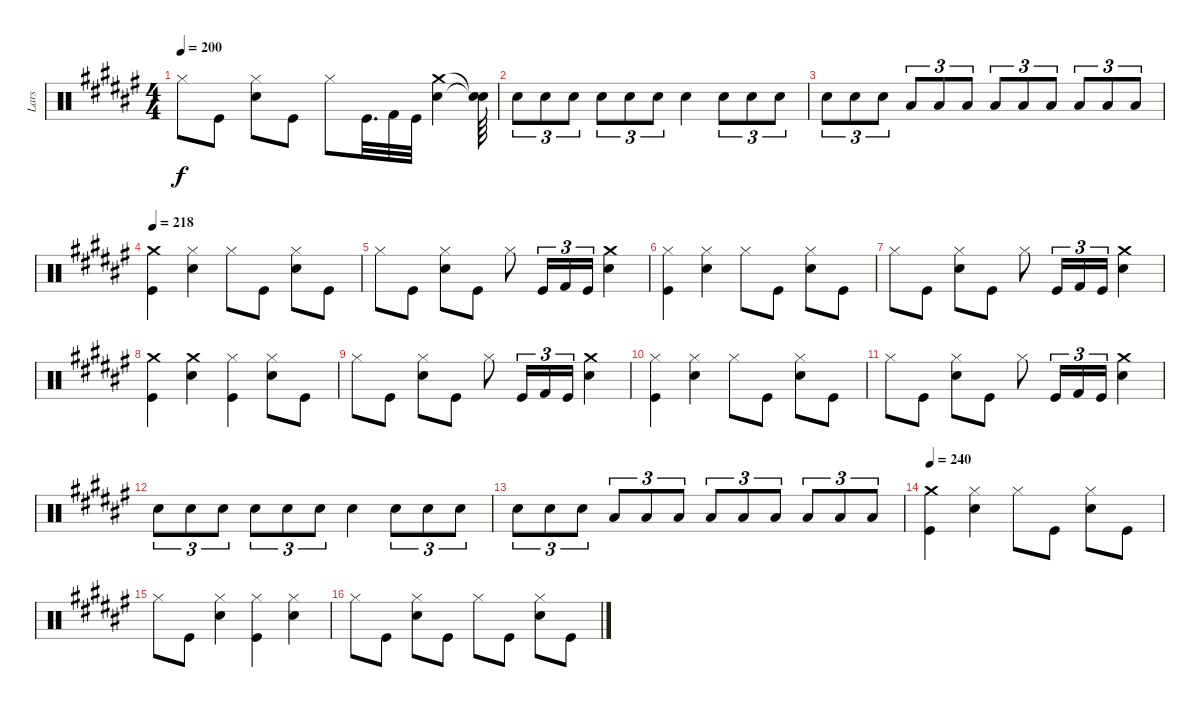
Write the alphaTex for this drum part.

\track ("Lars" "Lars") {instrument percussion}
\staff {score}
\articulation defaults
\ts (4 4)
\tempo 200
\clef neutral
\ks f# "Hi-Hat (closed)".8{dy f} "Kick (hit)".8
("Snare (hit) 2" "Hi-Hat (closed)").8 "Kick (hit)".8 "Hi-Hat (closed)".8 "Kick (hit)".32{d} "Kick (hit) 2".32 "Kick (hit)".32 ("Crash medium (hit)" "Snare (hit) 2").4 ("Snare (hit)"{t} "Snare (hit)"{t}).64 |
"Snare (hit) 2".8{tu (3 2)} "Snare (hit) 2".8{tu (3 2)} "Snare (hit) 2".8{tu (3 2)} "Snare (hit) 2".8{tu (3 2)} "Snare (hit) 2".8{tu (3 2)} "Snare (hit) 2".8{tu (3 2)} "Snare (hit) 2".4 "Snare (hit) 2".8{tu (3 2)} "Snare (hit) 2".8{tu (3 2)} "Snare (hit) 2".8{tu (3 2)} |
"Snare (hit) 2".8{tu (3 2)} "Snare (hit) 2".8{tu (3 2)} "Snare (hit) 2".8{tu (3 2)} "Low Tom (hit)".8{tu (3 2)} "Low Tom (hit)".8{tu (3 2)} "Low Tom (hit)".8{tu (3 2)} "Low Tom (hit)".8{tu (3 2)} "Low Tom (hit)".8{tu (3 2)} "Low Tom (hit)".8{tu (3 2)} "Low Tom (hit)".8{tu (3 2)} "Low Tom (hit)".8{tu (3 2)} "Low Tom (hit)".8{tu (3 2)} |
\tempo 218
("Crash medium (hit)" "Kick (hit)").4 ("Hi-Hat (closed)" "Snare (hit) 2").4 "Hi-Hat (closed)".8 "Kick (hit)".8 ("Snare (hit) 2" "Hi-Hat (closed)").8 "Kick (hit)".8 |
"Hi-Hat (closed)".8 "Kick (hit)".8 ("Snare (hit) 2" "Hi-Hat (closed)").8 "Kick (hit)".8 "Hi-Hat (closed)".8 "Kick (hit)".16{tu (3 2)} "Kick (hit) 2".16{tu (3 2)} "Kick (hit)".16{tu (3 2)} ("Crash medium (hit)" "Snare (hit) 2").4 |
("Hi-Hat (closed)" "Kick (hit)").4 ("Snare (hit) 2" "Hi-Hat (closed)").4 "Hi-Hat (closed)".8 "Kick (hit)".8 ("Snare (hit) 2" "Hi-Hat (closed)").8 "Kick (hit)".8 |
"Hi-Hat (closed)".8 "Kick (hit)".8 ("Snare (hit) 2" "Hi-Hat (closed)").8 "Kick (hit)".8 "Hi-Hat (closed)".8 "Kick (hit)".16{tu (3 2)} "Kick (hit) 2".16{tu (3 2)} "Kick (hit)".16{tu (3 2)} ("Crash medium (hit)" "Snare (hit) 2").4 |
("Kick (hit)" "Crash medium (hit)").4 ("Snare (hit) 2" "Crash medium (hit)").4 ("Hi-Hat (closed)" "Kick (hit)").4 ("Snare (hit) 2" "Hi-Hat (closed)").8 "Kick (hit)".8 |
"Hi-Hat (closed)".8 "Kick (hit)".8 ("Snare (hit) 2" "Hi-Hat (closed)").8 "Kick (hit)".8 "Hi-Hat (closed)".8 "Kick (hit)".16{tu (3 2)} "Kick (hit) 2".16{tu (3 2)} "Kick (hit)".16{tu (3 2)} ("Crash medium (hit)" "Snare (hit) 2").4 |
("Hi-Hat (closed)" "Kick (hit)").4 ("Snare (hit) 2" "Hi-Hat (closed)").4 "Hi-Hat (closed)".8 "Kick (hit)".8 ("Snare (hit) 2" "Hi-Hat (closed)").8 "Kick (hit)".8 |
"Hi-Hat (closed)".8 "Kick (hit)".8 ("Snare (hit) 2" "Hi-Hat (closed)").8 "Kick (hit)".8 "Hi-Hat (closed)".8 "Kick (hit)".16{tu (3 2)} "Kick (hit) 2".16{tu (3 2)} "Kick (hit)".16{tu (3 2)} ("Crash medium (hit)" "Snare (hit) 2").4 |
"Snare (hit) 2".8{tu (3 2)} "Snare (hit) 2".8{tu (3 2)} "Snare (hit) 2".8{tu (3 2)} "Snare (hit) 2".8{tu (3 2)} "Snare (hit) 2".8{tu (3 2)} "Snare (hit) 2".8{tu (3 2)} "Snare (hit) 2".4 "Snare (hit) 2".8{tu (3 2)} "Snare (hit) 2".8{tu (3 2)} "Snare (hit) 2".8{tu (3 2)} |
"Snare (hit) 2".8{tu (3 2)} "Snare (hit) 2".8{tu (3 2)} "Snare (hit) 2".8{tu (3 2)} "Low Tom (hit)".8{tu (3 2)} "Low Tom (hit)".8{tu (3 2)} "Low Tom (hit)".8{tu (3 2)} "Low Tom (hit)".8{tu (3 2)} "Low Tom (hit)".8{tu (3 2)} "Low Tom (hit)".8{tu (3 2)} "Low Tom (hit)".8{tu (3 2)} "Low Tom (hit)".8{tu (3 2)} "Low Tom (hit)".8{tu (3 2)} |
\tempo 240
("Crash medium (hit)" "Kick (hit)").4 ("Hi-Hat (closed)" "Snare (hit) 2").4 "Hi-Hat (closed)".8 "Kick (hit)".8 ("Snare (hit) 2" "Hi-Hat (closed)").8 "Kick (hit)".8 |
"Hi-Hat (closed)".8 "Kick (hit)".8 ("Snare (hit) 2" "Hi-Hat (closed)").4 ("Hi-Hat (closed)" "Kick (hit)").4 ("Snare (hit) 2" "Hi-Hat (closed)").4 |
"Hi-Hat (closed)".8 "Kick (hit)".8 ("Snare (hit) 2" "Hi-Hat (closed)").8 "Kick (hit)".8 "Hi-Hat (closed)".8 "Kick (hit)".8 ("Snare (hit) 2" "Hi-Hat (closed)").8 "Kick (hit)".8
